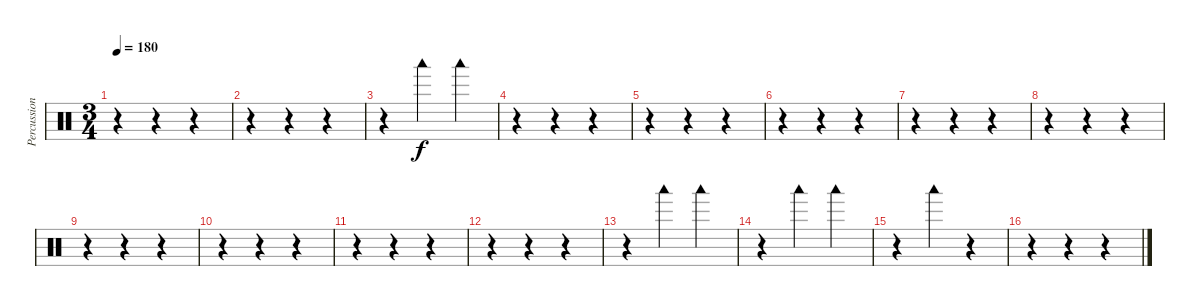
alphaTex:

\track ("Percussions" "Percussion") {instrument percussion}
\staff {score}
\articulation defaults
\ts (3 4)
\tempo 180
\clef neutral
\ks c
r.4{dy f} r.4 r.4 |
r.4 r.4 r.4 |
r.4 "Woodblock low (hit)".4 "Woodblock low (hit)".4 |
r.4 r.4 r.4 |
r.4 r.4 r.4 |
r.4 r.4 r.4 |
r.4 r.4 r.4 |
r.4 r.4 r.4 |
r.4 r.4 r.4 |
r.4 r.4 r.4 |
r.4 r.4 r.4 |
r.4 r.4 r.4 |
r.4 "Woodblock low (hit)".4 "Woodblock low (hit)".4 |
r.4 "Woodblock low (hit)".4 "Woodblock low (hit)".4 |
r.4 "Woodblock low (hit)".4 r.4 |
r.4 r.4 r.4
